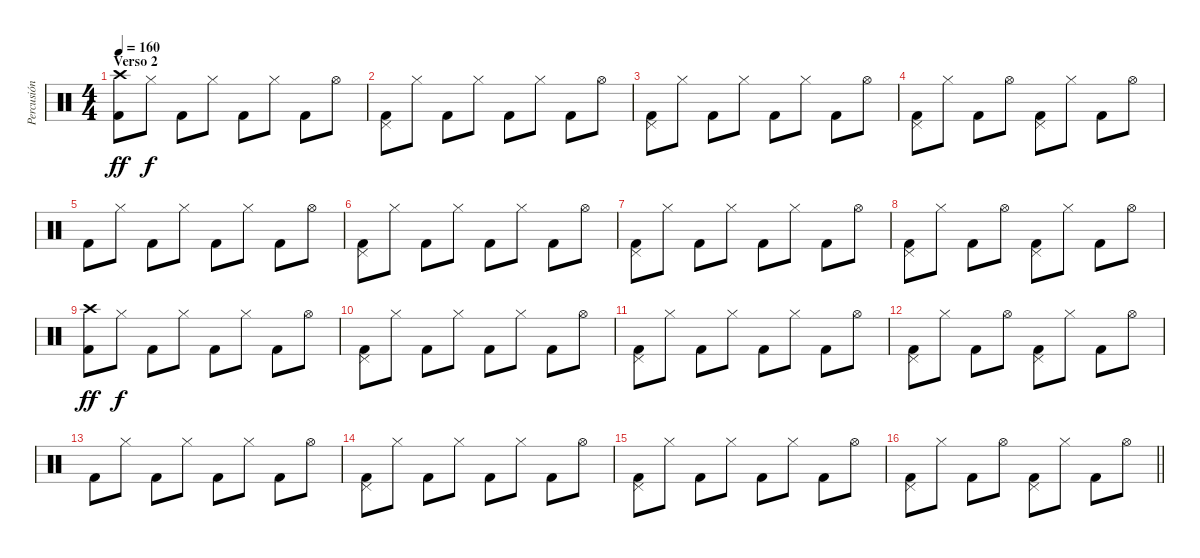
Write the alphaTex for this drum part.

\track ("Percusión" "Percusión") {instrument percussion}
\staff {score}
\articulation defaults
\ts (4 4)
\section ("" "Verso 2")
\tempo 160
\clef neutral
\ks c
("Crash high (hit)" "Kick (hit) 2").8{dy ff} "Hi-Hat (closed)".8{dy f} "Kick (hit) 2".8 "Hi-Hat (closed)".8 "Kick (hit) 2".8 "Hi-Hat (closed)".8 "Kick (hit) 2".8 "Hi-Hat (open)".8 |
("Pedal Hi-Hat (hit)" "Kick (hit) 2").8 "Hi-Hat (closed)".8 "Kick (hit) 2".8 "Hi-Hat (closed)".8 "Kick (hit) 2".8 "Hi-Hat (closed)".8 "Kick (hit) 2".8 "Hi-Hat (open)".8 |
("Pedal Hi-Hat (hit)" "Kick (hit) 2").8 "Hi-Hat (closed)".8 "Kick (hit) 2".8 "Hi-Hat (closed)".8 "Kick (hit) 2".8 "Hi-Hat (closed)".8 "Kick (hit) 2".8 "Hi-Hat (open)".8 |
("Pedal Hi-Hat (hit)" "Kick (hit) 2").8 "Hi-Hat (closed)".8 "Kick (hit) 2".8 "Hi-Hat (open)".8 ("Pedal Hi-Hat (hit)" "Kick (hit) 2").8 "Hi-Hat (closed)".8 "Kick (hit) 2".8 "Hi-Hat (open)".8 |
"Kick (hit) 2".8 "Hi-Hat (closed)".8 "Kick (hit) 2".8 "Hi-Hat (closed)".8 "Kick (hit) 2".8 "Hi-Hat (closed)".8 "Kick (hit) 2".8 "Hi-Hat (open)".8 |
("Pedal Hi-Hat (hit)" "Kick (hit) 2").8 "Hi-Hat (closed)".8 "Kick (hit) 2".8 "Hi-Hat (closed)".8 "Kick (hit) 2".8 "Hi-Hat (closed)".8 "Kick (hit) 2".8 "Hi-Hat (open)".8 |
("Pedal Hi-Hat (hit)" "Kick (hit) 2").8 "Hi-Hat (closed)".8 "Kick (hit) 2".8 "Hi-Hat (closed)".8 "Kick (hit) 2".8 "Hi-Hat (closed)".8 "Kick (hit) 2".8 "Hi-Hat (open)".8 |
("Pedal Hi-Hat (hit)" "Kick (hit) 2").8 "Hi-Hat (closed)".8 "Kick (hit) 2".8 "Hi-Hat (open)".8 ("Pedal Hi-Hat (hit)" "Kick (hit) 2").8 "Hi-Hat (closed)".8 "Kick (hit) 2".8 "Hi-Hat (open)".8 |
("Crash high (hit)" "Kick (hit) 2").8{dy ff} "Hi-Hat (closed)".8{dy f} "Kick (hit) 2".8 "Hi-Hat (closed)".8 "Kick (hit) 2".8 "Hi-Hat (closed)".8 "Kick (hit) 2".8 "Hi-Hat (open)".8 |
("Pedal Hi-Hat (hit)" "Kick (hit) 2").8 "Hi-Hat (closed)".8 "Kick (hit) 2".8 "Hi-Hat (closed)".8 "Kick (hit) 2".8 "Hi-Hat (closed)".8 "Kick (hit) 2".8 "Hi-Hat (open)".8 |
("Pedal Hi-Hat (hit)" "Kick (hit) 2").8 "Hi-Hat (closed)".8 "Kick (hit) 2".8 "Hi-Hat (closed)".8 "Kick (hit) 2".8 "Hi-Hat (closed)".8 "Kick (hit) 2".8 "Hi-Hat (open)".8 |
("Pedal Hi-Hat (hit)" "Kick (hit) 2").8 "Hi-Hat (closed)".8 "Kick (hit) 2".8 "Hi-Hat (open)".8 ("Pedal Hi-Hat (hit)" "Kick (hit) 2").8 "Hi-Hat (closed)".8 "Kick (hit) 2".8 "Hi-Hat (open)".8 |
"Kick (hit) 2".8 "Hi-Hat (closed)".8 "Kick (hit) 2".8 "Hi-Hat (closed)".8 "Kick (hit) 2".8 "Hi-Hat (closed)".8 "Kick (hit) 2".8 "Hi-Hat (open)".8 |
("Pedal Hi-Hat (hit)" "Kick (hit) 2").8 "Hi-Hat (closed)".8 "Kick (hit) 2".8 "Hi-Hat (closed)".8 "Kick (hit) 2".8 "Hi-Hat (closed)".8 "Kick (hit) 2".8 "Hi-Hat (open)".8 |
("Pedal Hi-Hat (hit)" "Kick (hit) 2").8 "Hi-Hat (closed)".8 "Kick (hit) 2".8 "Hi-Hat (closed)".8 "Kick (hit) 2".8 "Hi-Hat (closed)".8 "Kick (hit) 2".8 "Hi-Hat (open)".8 |
\barLineRight lightlight
("Pedal Hi-Hat (hit)" "Kick (hit) 2").8 "Hi-Hat (closed)".8 "Kick (hit) 2".8 "Hi-Hat (open)".8 ("Pedal Hi-Hat (hit)" "Kick (hit) 2").8 "Hi-Hat (closed)".8 "Kick (hit) 2".8 "Hi-Hat (open)".8
